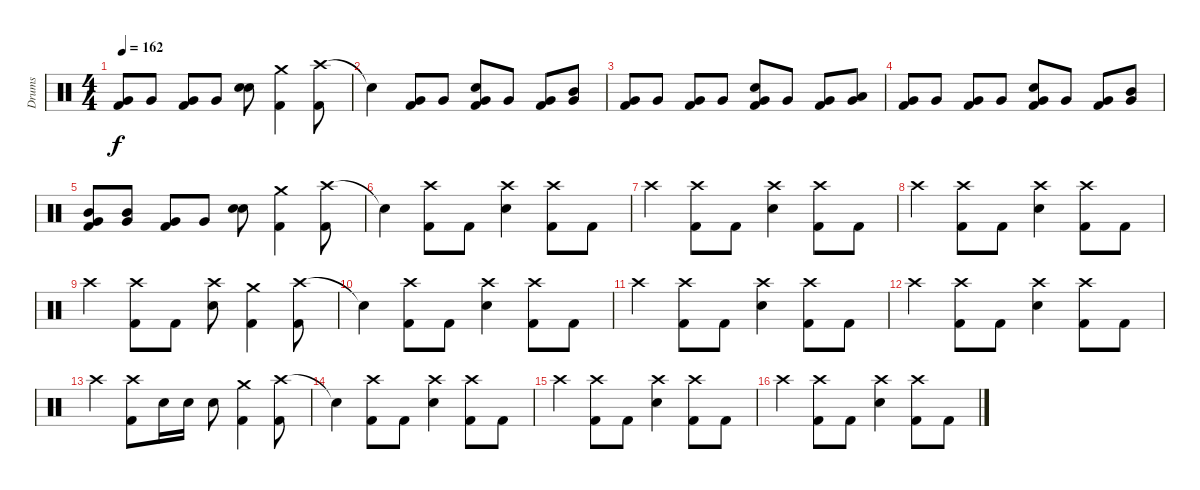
\track ("Drums" "Drums") {instrument percussion}
\staff {score}
\articulation defaults
\ts (4 4)
\tempo 162
\clef neutral
\ks c
("Very Low Tom (hit)" "Kick (hit) 2").8{dy f} "Very Low Tom (hit)".8 ("Very Low Tom (hit)" "Kick (hit) 2").8 "Very Low Tom (hit)".8 ("Snare (hit) 2" "Snare (hit) 2").8 ("Crash medium (hit)" "Kick (hit) 2").4 ("Crash high (hit)" "Kick (hit) 2").8 |
"Snare (hit)"{t}.4 ("Very Low Tom (hit)" "Kick (hit) 2").8 "Very Low Tom (hit)".8 ("Very Low Tom (hit)" "Snare (hit) 2" "Kick (hit) 2").8 "Very Low Tom (hit)".8 ("Very Low Tom (hit)" "Kick (hit) 2").8 ("Mid Tom (hit)" "Very Low Tom (hit)").8 |
("Very Low Tom (hit)" "Kick (hit) 2").8 "Very Low Tom (hit)".8 ("Very Low Tom (hit)" "Kick (hit) 2").8 "Very Low Tom (hit)".8 ("Very Low Tom (hit)" "Snare (hit) 2" "Kick (hit) 2").8 "Very Low Tom (hit)".8 ("Very Low Tom (hit)" "Kick (hit) 2").8 ("Low Tom (hit)" "Very Low Tom (hit)").8 |
("Very Low Tom (hit)" "Kick (hit) 2").8 "Very Low Tom (hit)".8 ("Very Low Tom (hit)" "Kick (hit) 2").8 "Very Low Tom (hit)".8 ("Very Low Tom (hit)" "Snare (hit) 2" "Kick (hit) 2").8 "Very Low Tom (hit)".8 ("Very Low Tom (hit)" "Kick (hit) 2").8 ("Mid Tom (hit)" "Very Low Tom (hit)").8 |
("Mid Tom (hit)" "Very Low Tom (hit)" "Kick (hit) 2").8 ("Mid Tom (hit)" "Very Low Tom (hit)").8 ("Very Low Tom (hit)" "Kick (hit) 2").8 "Very Low Tom (hit)".8 ("Snare (hit) 2" "Snare (hit) 2").8 ("Crash medium (hit)" "Kick (hit) 2").4 ("Crash high (hit)" "Kick (hit) 2").8 |
"Snare (hit)"{t}.4 ("Crash high (hit)" "Kick (hit) 2").8 "Kick (hit) 2".8 ("Crash high (hit)" "Snare (hit) 2").4 ("Crash high (hit)" "Kick (hit) 2").8 "Kick (hit) 2".8 |
"Crash high (hit)".4 ("Crash high (hit)" "Kick (hit) 2").8 "Kick (hit) 2".8 ("Crash high (hit)" "Snare (hit) 2").4 ("Crash high (hit)" "Kick (hit) 2").8 "Kick (hit) 2".8 |
"Crash high (hit)".4 ("Crash high (hit)" "Kick (hit) 2").8 "Kick (hit) 2".8 ("Crash high (hit)" "Snare (hit) 2").4 ("Crash high (hit)" "Kick (hit) 2").8 "Kick (hit) 2".8 |
"Crash high (hit)".4 ("Crash high (hit)" "Kick (hit) 2").8 "Kick (hit) 2".8 ("Crash high (hit)" "Snare (hit) 2").8 ("Crash medium (hit)" "Kick (hit) 2").4 ("Crash high (hit)" "Kick (hit) 2").8 |
"Snare (hit)"{t}.4 ("Crash high (hit)" "Kick (hit) 2").8 "Kick (hit) 2".8 ("Crash high (hit)" "Snare (hit) 2").4 ("Crash high (hit)" "Kick (hit) 2").8 "Kick (hit) 2".8 |
"Crash high (hit)".4 ("Crash high (hit)" "Kick (hit) 2").8 "Kick (hit) 2".8 ("Crash high (hit)" "Snare (hit) 2").4 ("Crash high (hit)" "Kick (hit) 2").8 "Kick (hit) 2".8 |
"Crash high (hit)".4 ("Crash high (hit)" "Kick (hit) 2").8 "Kick (hit) 2".8 ("Crash high (hit)" "Snare (hit) 2").4 ("Crash high (hit)" "Kick (hit) 2").8 "Kick (hit) 2".8 |
"Crash high (hit)".4 ("Crash high (hit)" "Kick (hit) 2").8 "Snare (hit) 2".16 "Snare (hit) 2".16 "Snare (hit) 2".8 ("Crash medium (hit)" "Kick (hit) 2").4 ("Crash high (hit)" "Kick (hit) 2").8 |
"Snare (hit)"{t}.4 ("Crash high (hit)" "Kick (hit) 2").8 "Kick (hit) 2".8 ("Crash high (hit)" "Snare (hit) 2").4 ("Crash high (hit)" "Kick (hit) 2").8 "Kick (hit) 2".8 |
"Crash high (hit)".4 ("Crash high (hit)" "Kick (hit) 2").8 "Kick (hit) 2".8 ("Crash high (hit)" "Snare (hit) 2").4 ("Crash high (hit)" "Kick (hit) 2").8 "Kick (hit) 2".8 |
"Crash high (hit)".4 ("Crash high (hit)" "Kick (hit) 2").8 "Kick (hit) 2".8 ("Crash high (hit)" "Snare (hit) 2").4 ("Crash high (hit)" "Kick (hit) 2").8 "Kick (hit) 2".8
